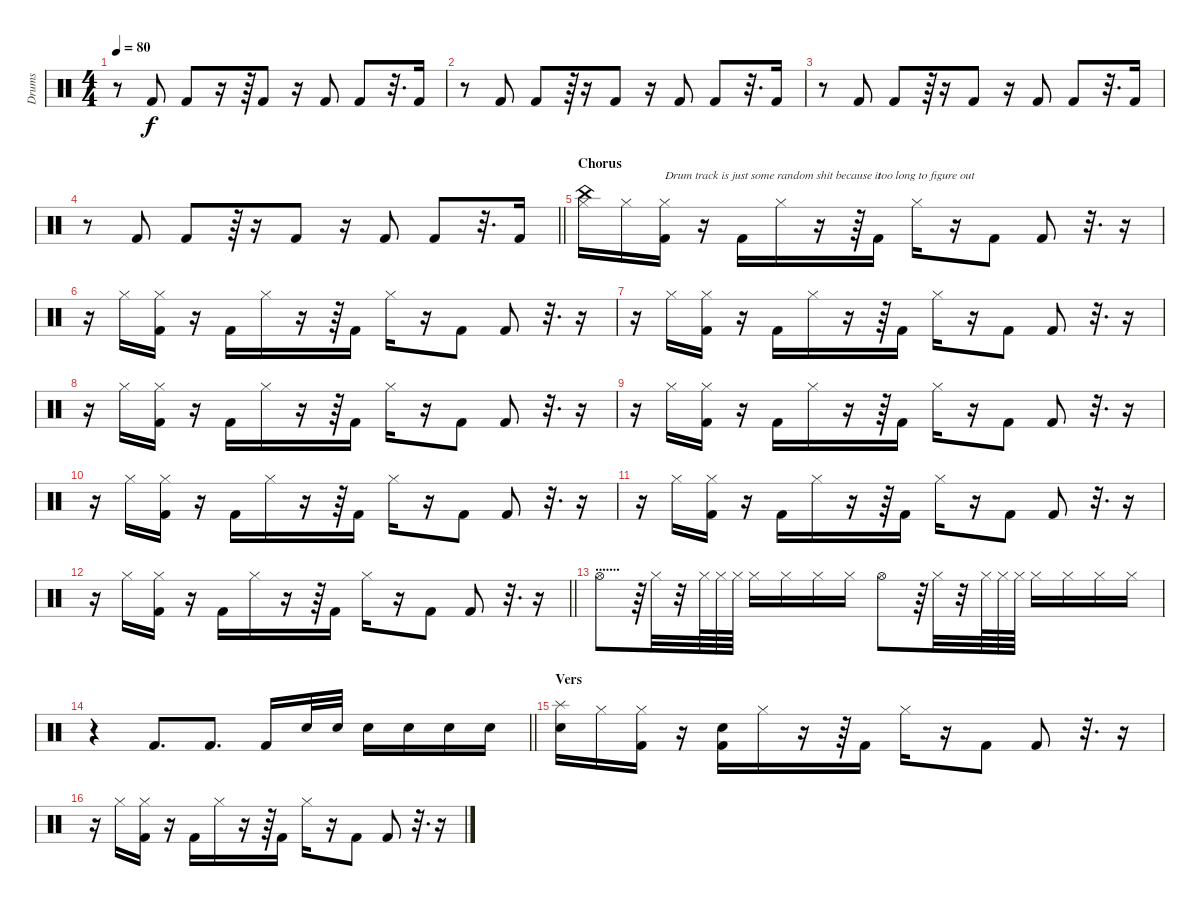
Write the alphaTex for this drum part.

\track ("Drums" "Drums") {instrument percussion}
\staff {score}
\articulation defaults
\ts (4 4)
\tempo 80
\clef neutral
\ks c
r.8{dy f} "Kick (hit) 2".8 "Kick (hit) 2".8 r.16 r.64 "Kick (hit) 2".8 r.16 "Kick (hit) 2".8 "Kick (hit) 2".8 r.32{d} "Kick (hit) 2".16 |
r.8 "Kick (hit) 2".8 "Kick (hit) 2".8 r.64 r.16 "Kick (hit) 2".8 r.16 "Kick (hit) 2".8 "Kick (hit) 2".8 r.32{d} "Kick (hit) 2".16 |
r.8 "Kick (hit) 2".8 "Kick (hit) 2".8 r.64 r.16 "Kick (hit) 2".8 r.16 "Kick (hit) 2".8 "Kick (hit) 2".8 r.32{d} "Kick (hit) 2".16 |
\barLineRight lightlight
r.8 "Kick (hit) 2".8 "Kick (hit) 2".8 r.64 r.16 "Kick (hit) 2".8 r.16 "Kick (hit) 2".8 "Kick (hit) 2".8 r.32{d} "Kick (hit) 2".16 |
\section ("" "Chorus")
("Hi-Hat (closed)" "China (hit)").16 "Hi-Hat (closed)".16 ("Hi-Hat (closed)" "Kick (hit) 2").16{txt "Drum track is just some random shit because it"} r.16 "Kick (hit) 2".16 "Hi-Hat (closed)".16 r.16 r.64 "Kick (hit) 2".16{txt "too long to figure out"} "Hi-Hat (closed)".16 r.16 "Kick (hit) 2".8 "Kick (hit) 2".8 r.32{d} r.16 |
r.16 "Hi-Hat (closed)".16 ("Hi-Hat (closed)" "Kick (hit) 2").16 r.16 "Kick (hit) 2".16 "Hi-Hat (closed)".16 r.16 r.64 "Kick (hit) 2".16 "Hi-Hat (closed)".16 r.16 "Kick (hit) 2".8 "Kick (hit) 2".8 r.32{d} r.16 |
r.16 "Hi-Hat (closed)".16 ("Hi-Hat (closed)" "Kick (hit) 2").16 r.16 "Kick (hit) 2".16 "Hi-Hat (closed)".16 r.16 r.64 "Kick (hit) 2".16 "Hi-Hat (closed)".16 r.16 "Kick (hit) 2".8 "Kick (hit) 2".8 r.32{d} r.16 |
r.16 "Hi-Hat (closed)".16 ("Hi-Hat (closed)" "Kick (hit) 2").16 r.16 "Kick (hit) 2".16 "Hi-Hat (closed)".16 r.16 r.64 "Kick (hit) 2".16 "Hi-Hat (closed)".16 r.16 "Kick (hit) 2".8 "Kick (hit) 2".8 r.32{d} r.16 |
r.16 "Hi-Hat (closed)".16 ("Hi-Hat (closed)" "Kick (hit) 2").16 r.16 "Kick (hit) 2".16 "Hi-Hat (closed)".16 r.16 r.64 "Kick (hit) 2".16 "Hi-Hat (closed)".16 r.16 "Kick (hit) 2".8 "Kick (hit) 2".8 r.32{d} r.16 |
r.16 "Hi-Hat (closed)".16 ("Hi-Hat (closed)" "Kick (hit) 2").16 r.16 "Kick (hit) 2".16 "Hi-Hat (closed)".16 r.16 r.64 "Kick (hit) 2".16 "Hi-Hat (closed)".16 r.16 "Kick (hit) 2".8 "Kick (hit) 2".8 r.32{d} r.16 |
r.16 "Hi-Hat (closed)".16 ("Hi-Hat (closed)" "Kick (hit) 2").16 r.16 "Kick (hit) 2".16 "Hi-Hat (closed)".16 r.16 r.64 "Kick (hit) 2".16 "Hi-Hat (closed)".16 r.16 "Kick (hit) 2".8 "Kick (hit) 2".8 r.32{d} r.16 |
\barLineRight lightlight
r.16 "Hi-Hat (closed)".16 ("Hi-Hat (closed)" "Kick (hit) 2").16 r.16 "Kick (hit) 2".16 "Hi-Hat (closed)".16 r.16 r.64 "Kick (hit) 2".16 "Hi-Hat (closed)".16 r.16 "Kick (hit) 2".8 "Kick (hit) 2".8 r.32{d} r.16 |
\section ("" ".......")
"Hi-Hat (open)".8 r.64 "Hi-Hat (closed)".32 r.32 "Hi-Hat (closed)".64 "Hi-Hat (closed)".64 "Hi-Hat (closed)".64 "Hi-Hat (closed)".16 "Hi-Hat (closed)".16 "Hi-Hat (closed)".16 "Hi-Hat (closed)".16 "Hi-Hat (open)".8 r.64 "Hi-Hat (closed)".32 r.32 "Hi-Hat (closed)".64 "Hi-Hat (closed)".64 "Hi-Hat (closed)".64 "Hi-Hat (closed)".16 "Hi-Hat (closed)".16 "Hi-Hat (closed)".16 "Hi-Hat (closed)".16 |
\barLineRight lightlight
r.4 "Kick (hit) 2".8{d} "Kick (hit) 2".8{d} "Kick (hit) 2".16 "Snare (hit) 2".32 "Snare (hit) 2".32 "Snare (hit) 2".16 "Snare (hit) 2".16 "Snare (hit) 2".16 "Snare (hit) 2".16 |
\section ("" "Vers")
("Snare (hit) 2" "Splash (hit)").16 "Hi-Hat (closed)".16 ("Hi-Hat (closed)" "Kick (hit) 2").16 r.16 ("Kick (hit) 2" "Snare (hit) 2").16 "Hi-Hat (closed)".16 r.16 r.64 "Kick (hit) 2".16 "Hi-Hat (closed)".16 r.16 "Kick (hit) 2".8 "Kick (hit) 2".8 r.32{d} r.16 |
r.16 "Hi-Hat (closed)".16 ("Hi-Hat (closed)" "Kick (hit) 2").16 r.16 "Kick (hit) 2".16 "Hi-Hat (closed)".16 r.16 r.64 "Kick (hit) 2".16 "Hi-Hat (closed)".16 r.16 "Kick (hit) 2".8 "Kick (hit) 2".8 r.32{d} r.16
